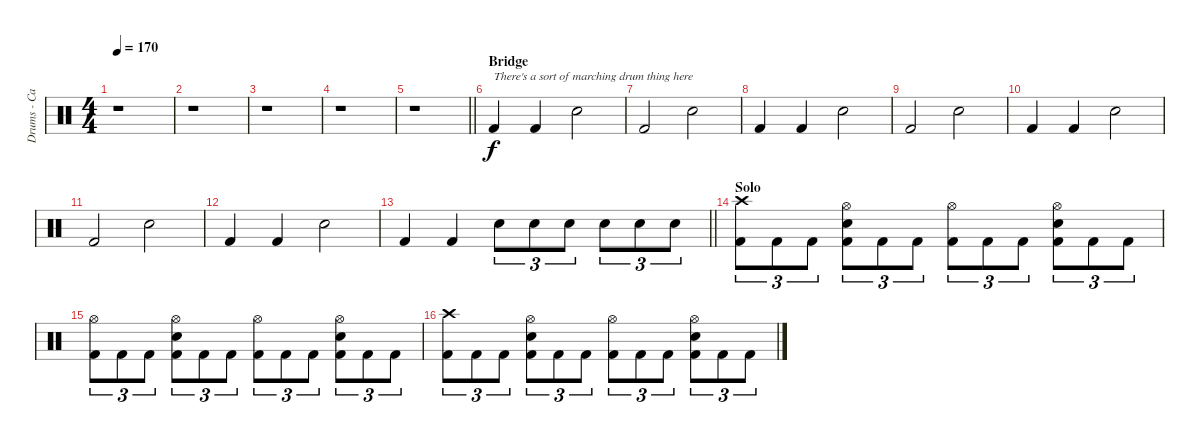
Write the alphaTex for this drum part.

\track ("Drums - Casey Grillo" "Drums - Ca") {instrument percussion}
\staff {score}
\articulation defaults
\ts (4 4)
\tempo 170
\clef neutral
\ks c
r.1{dy f} |
r.1 |
r.1 |
r.1 |
\barLineRight lightlight
r.1 |
\section ("" "Bridge")
"Kick (hit) 2".4{txt "There's a sort of marching drum thing here"} "Kick (hit) 2".4 "Snare (hit) 2".2 |
"Kick (hit) 2".2 "Snare (hit) 2".2 |
"Kick (hit) 2".4 "Kick (hit) 2".4 "Snare (hit) 2".2 |
"Kick (hit) 2".2 "Snare (hit) 2".2 |
"Kick (hit) 2".4 "Kick (hit) 2".4 "Snare (hit) 2".2 |
"Kick (hit) 2".2 "Snare (hit) 2".2 |
"Kick (hit) 2".4 "Kick (hit) 2".4 "Snare (hit) 2".2 |
\barLineRight lightlight "Kick (hit) 2".4 "Kick (hit) 2".4 "Snare (hit) 2".8{tu (3 2)} "Snare (hit) 2".8{tu (3 2)} "Snare (hit) 2".8{tu (3 2)} "Snare (hit) 2".8{tu (3 2)} "Snare (hit) 2".8{tu (3 2)} "Snare (hit) 2".8{tu (3 2)}
|
\section ("" "Solo")
("Crash high (hit)" "Kick (hit) 2").8{tu (3 2)} "Kick (hit) 2".8{tu (3 2)} "Kick (hit) 2".8{tu (3 2)} ("Hi-Hat (open)" "Snare (hit) 2" "Kick (hit) 2").8{tu (3 2)} "Kick (hit) 2".8{tu (3 2)} "Kick (hit) 2".8{tu (3 2)} ("Hi-Hat (open)" "Kick (hit) 2").8{tu (3 2)} "Kick (hit) 2".8{tu (3 2)} "Kick (hit) 2".8{tu (3 2)} ("Hi-Hat (open)" "Snare (hit) 2" "Kick (hit) 2").8{tu (3 2)} "Kick (hit) 2".8{tu (3 2)} "Kick (hit) 2".8{tu (3 2)} |
("Hi-Hat (open)" "Kick (hit) 2").8{tu (3 2)} "Kick (hit) 2".8{tu (3 2)} "Kick (hit) 2".8{tu (3 2)} ("Hi-Hat (open)" "Snare (hit) 2" "Kick (hit) 2").8{tu (3 2)} "Kick (hit) 2".8{tu (3 2)} "Kick (hit) 2".8{tu (3 2)} ("Hi-Hat (open)" "Kick (hit) 2").8{tu (3 2)} "Kick (hit) 2".8{tu (3 2)} "Kick (hit) 2".8{tu (3 2)} ("Hi-Hat (open)" "Snare (hit) 2" "Kick (hit) 2").8{tu (3 2)} "Kick (hit) 2".8{tu (3 2)} "Kick (hit) 2".8{tu (3 2)} |
("Crash high (hit)" "Kick (hit) 2").8{tu (3 2)} "Kick (hit) 2".8{tu (3 2)} "Kick (hit) 2".8{tu (3 2)} ("Hi-Hat (open)" "Snare (hit) 2" "Kick (hit) 2").8{tu (3 2)} "Kick (hit) 2".8{tu (3 2)} "Kick (hit) 2".8{tu (3 2)} ("Hi-Hat (open)" "Kick (hit) 2").8{tu (3 2)} "Kick (hit) 2".8{tu (3 2)} "Kick (hit) 2".8{tu (3 2)} ("Hi-Hat (open)" "Snare (hit) 2" "Kick (hit) 2").8{tu (3 2)} "Kick (hit) 2".8{tu (3 2)} "Kick (hit) 2".8{tu (3 2)}
